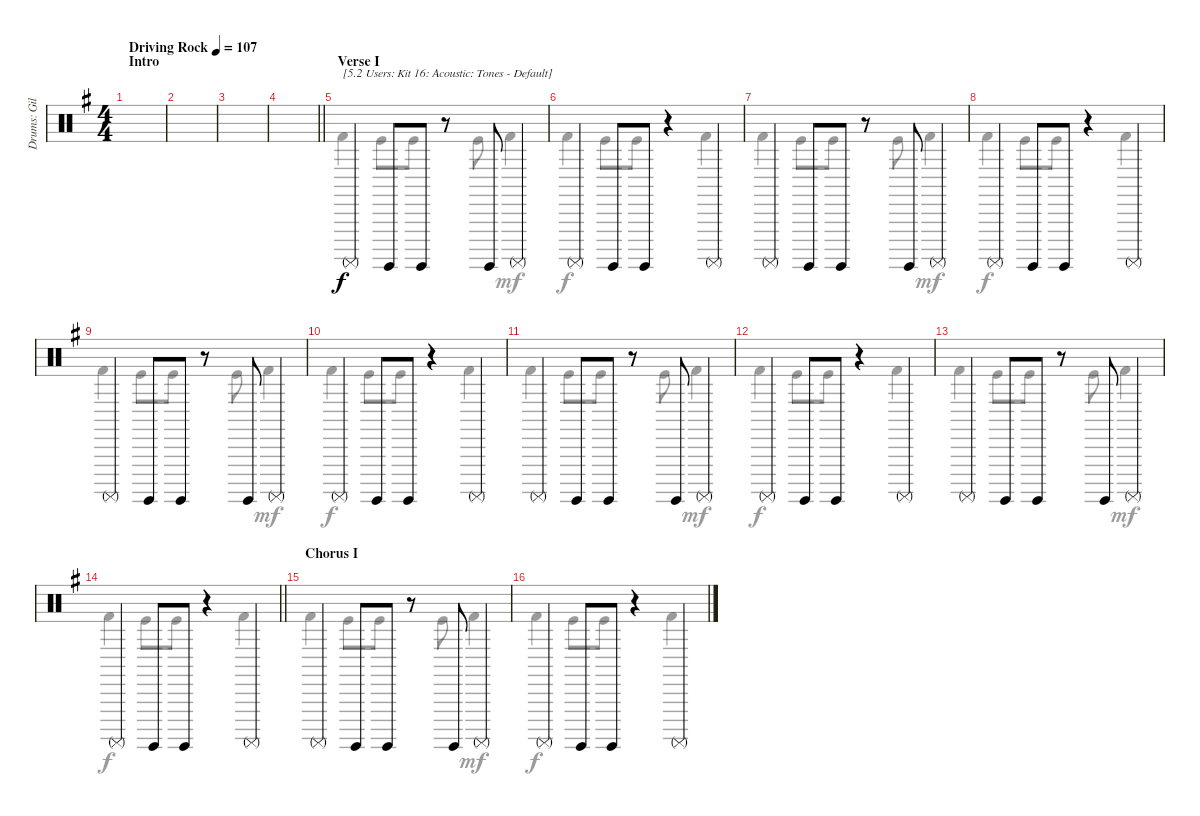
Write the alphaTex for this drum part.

\track ("Drums: Gil" "Drums: Gil") {instrument percussion}
\staff {score}
\articulation defaults
\voice
\ts (4 4)
\section ("" "Intro")
\tempo (107 "Driving Rock")
\clef neutral
\ks g
|
|
|
\barLineRight lightlight
|
\section ("" "Verse I")
"Surdo (mute)".4{txt "[5.2 Users: Kit 16: Acoustic: Tones - Default]"} "Surdo (hit)".8 "Surdo (hit)".8 r.8 "Surdo (hit)".8 "Surdo (mute)".4 |
"Surdo (mute)".4 "Surdo (hit)".8 "Surdo (hit)".8 r.4 "Surdo (mute)".4 |
"Surdo (mute)".4 "Surdo (hit)".8 "Surdo (hit)".8 r.8 "Surdo (hit)".8 "Surdo (mute)".4 |
"Surdo (mute)".4 "Surdo (hit)".8 "Surdo (hit)".8 r.4 "Surdo (mute)".4 |
"Surdo (mute)".4 "Surdo (hit)".8 "Surdo (hit)".8 r.8 "Surdo (hit)".8 "Surdo (mute)".4 |
"Surdo (mute)".4 "Surdo (hit)".8 "Surdo (hit)".8 r.4 "Surdo (mute)".4 |
"Surdo (mute)".4 "Surdo (hit)".8 "Surdo (hit)".8 r.8 "Surdo (hit)".8 "Surdo (mute)".4 |
"Surdo (mute)".4 "Surdo (hit)".8 "Surdo (hit)".8 r.4 "Surdo (mute)".4 |
"Surdo (mute)".4 "Surdo (hit)".8 "Surdo (hit)".8 r.8 "Surdo (hit)".8 "Surdo (mute)".4 |
\barLineRight lightlight "Surdo (mute)".4 "Surdo (hit)".8 "Surdo (hit)".8
r.4 "Surdo (mute)".4 |
\section ("" "Chorus I")
"Surdo (mute)".4 "Surdo (hit)".8 "Surdo (hit)".8 r.8 "Surdo (hit)".8 "Surdo (mute)".4 |
"Surdo (mute)".4 "Surdo (hit)".8 "Surdo (hit)".8 r.4 "Surdo (mute)".4
\voice
\clef neutral
\ottava regular
\simile none
\ks g
|
|
|
\barLineRight lightlight
|
"Kick (hit) 2".4 "Kick (hit)".8 "Kick (hit)".8 r.8 "Kick (hit)".8 "Kick (hit) 2".4{dy mf} |
"Kick (hit) 2".4{dy f} "Kick (hit)".8 "Kick (hit)".8 r.4 "Kick (hit) 2".4 |
"Kick (hit) 2".4 "Kick (hit)".8 "Kick (hit)".8 r.8 "Kick (hit)".8 "Kick (hit) 2".4{dy mf} |
"Kick (hit) 2".4{dy f} "Kick (hit)".8 "Kick (hit)".8 r.4 "Kick (hit) 2".4 |
"Kick (hit) 2".4 "Kick (hit)".8 "Kick (hit)".8 r.8 "Kick (hit)".8 "Kick (hit) 2".4{dy mf} |
"Kick (hit) 2".4{dy f} "Kick (hit)".8 "Kick (hit)".8 r.4 "Kick (hit) 2".4 |
"Kick (hit) 2".4 "Kick (hit)".8 "Kick (hit)".8 r.8 "Kick (hit)".8 "Kick (hit) 2".4{dy mf} |
"Kick (hit) 2".4{dy f} "Kick (hit)".8 "Kick (hit)".8 r.4 "Kick (hit) 2".4 |
"Kick (hit) 2".4 "Kick (hit)".8 "Kick (hit)".8 r.8 "Kick (hit)".8 "Kick (hit) 2".4{dy mf} |
\barLineRight lightlight "Kick (hit) 2".4{dy f} "Kick (hit)".8 "Kick (hit)".8
r.4 "Kick (hit) 2".4 |
"Kick (hit) 2".4 "Kick (hit)".8 "Kick (hit)".8 r.8 "Kick (hit)".8 "Kick (hit) 2".4{dy mf} |
"Kick (hit) 2".4{dy f} "Kick (hit)".8 "Kick (hit)".8 r.4 "Kick (hit) 2".4
